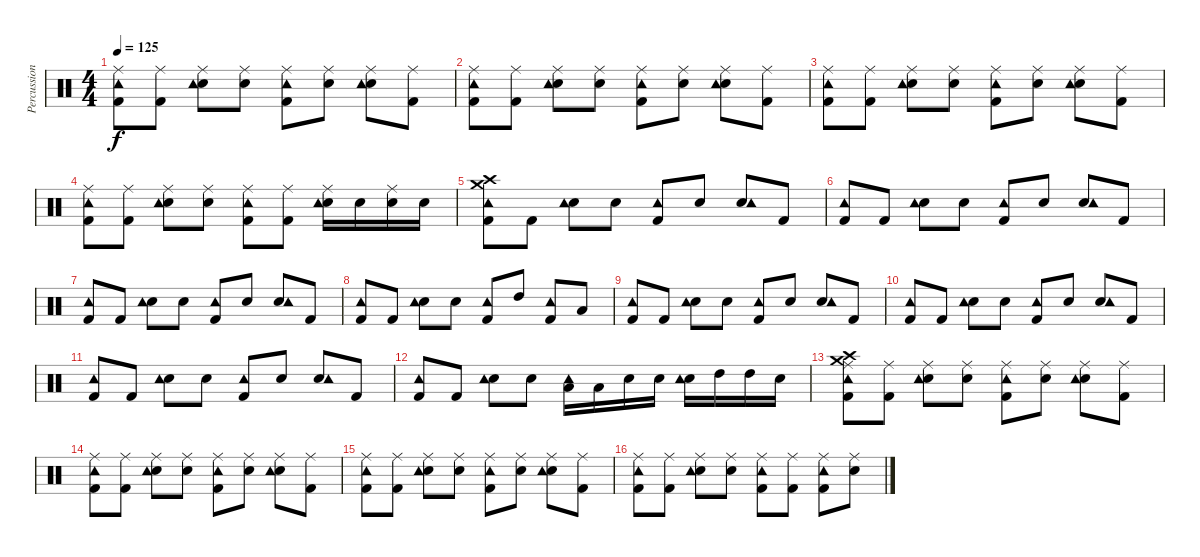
\track ("Percussioni" "Percussion") {instrument percussion}
\staff {score}
\articulation defaults
\ts (4 4)
\tempo 125
\clef neutral
\ks c
("Kick (hit) 2" "Ride (middle)" "Tambourine (hit)").8{dy f} ("Kick (hit) 2" "Ride (middle)").8 ("Snare (hit) 2" "Ride (middle)" "Tambourine (hit)").8 ("Snare (hit) 2" "Ride (middle)").8 ("Kick (hit) 2" "Ride (middle)" "Tambourine (hit)").8 ("Snare (hit) 2" "Ride (middle)").8 ("Snare (hit) 2" "Ride (middle)" "Tambourine (hit)").8 ("Kick (hit) 2" "Ride (middle)").8 |
("Kick (hit) 2" "Ride (middle)" "Tambourine (hit)").8 ("Kick (hit) 2" "Ride (middle)").8 ("Snare (hit) 2" "Ride (middle)" "Tambourine (hit)").8 ("Snare (hit) 2" "Ride (middle)").8 ("Kick (hit) 2" "Ride (middle)" "Tambourine (hit)").8 ("Snare (hit) 2" "Ride (middle)").8 ("Snare (hit) 2" "Ride (middle)" "Tambourine (hit)").8 ("Kick (hit) 2" "Ride (middle)").8 |
("Kick (hit) 2" "Ride (middle)" "Tambourine (hit)").8 ("Kick (hit) 2" "Ride (middle)").8 ("Snare (hit) 2" "Ride (middle)" "Tambourine (hit)").8 ("Snare (hit) 2" "Ride (middle)").8 ("Kick (hit) 2" "Ride (middle)" "Tambourine (hit)").8 ("Snare (hit) 2" "Ride (middle)").8 ("Snare (hit) 2" "Ride (middle)" "Tambourine (hit)").8 ("Kick (hit) 2" "Ride (middle)").8 |
("Kick (hit) 2" "Ride (middle)" "Tambourine (hit)").8 ("Kick (hit) 2" "Ride (middle)").8 ("Snare (hit) 2" "Ride (middle)" "Tambourine (hit)").8 ("Snare (hit) 2" "Ride (middle)").8 ("Kick (hit) 2" "Ride (middle)" "Tambourine (hit)").8 ("Kick (hit) 2" "Ride (middle)").8 ("Snare (hit) 2" "Ride (middle)" "Tambourine (hit)").16 "Snare (hit) 2".16 ("Snare (hit) 2" "Ride (middle)").16 "Snare (hit) 2".16 |
("Kick (hit) 2" "Crash high (hit)" "Crash medium (hit)" "Tambourine (hit)").8 "Kick (hit) 2".8 ("Snare (hit) 2" "Tambourine (hit)").8 "Snare (hit) 2".8 ("Kick (hit) 2" "Tambourine (hit)").8 "Snare (hit) 2".8 ("Snare (hit) 2" "Tambourine (hit)").8 "Kick (hit) 2".8 |
("Kick (hit) 2" "Tambourine (hit)").8 "Kick (hit) 2".8 ("Snare (hit) 2" "Tambourine (hit)").8 "Snare (hit) 2".8 ("Kick (hit) 2" "Tambourine (hit)").8 "Snare (hit) 2".8 ("Snare (hit) 2" "Tambourine (hit)").8 "Kick (hit) 2".8 |
("Kick (hit) 2" "Tambourine (hit)").8 "Kick (hit) 2".8 ("Snare (hit) 2" "Tambourine (hit)").8 "Snare (hit) 2".8 ("Kick (hit) 2" "Tambourine (hit)").8 "Snare (hit) 2".8 ("Snare (hit) 2" "Tambourine (hit)").8 "Kick (hit) 2".8 |
("Kick (hit) 2" "Tambourine (hit)").8 "Kick (hit) 2".8 ("Snare (hit) 2" "Tambourine (hit)").8 "Snare (hit) 2".8 ("Kick (hit) 2" "Tambourine (hit)").8 "High Tom (hit)".8 ("Kick (hit) 2" "Tambourine (hit)").8 "Low Floor Tom (hit)".8 |
("Kick (hit) 2" "Tambourine (hit)").8 "Kick (hit) 2".8 ("Snare (hit) 2" "Tambourine (hit)").8 "Snare (hit) 2".8 ("Kick (hit) 2" "Tambourine (hit)").8 "Snare (hit) 2".8 ("Snare (hit) 2" "Tambourine (hit)").8 "Kick (hit) 2".8 |
("Kick (hit) 2" "Tambourine (hit)").8 "Kick (hit) 2".8 ("Snare (hit) 2" "Tambourine (hit)").8 "Snare (hit) 2".8 ("Kick (hit) 2" "Tambourine (hit)").8 "Snare (hit) 2".8 ("Snare (hit) 2" "Tambourine (hit)").8 "Kick (hit) 2".8 |
("Kick (hit) 2" "Tambourine (hit)").8 "Kick (hit) 2".8 ("Snare (hit) 2" "Tambourine (hit)").8 "Snare (hit) 2".8 ("Kick (hit) 2" "Tambourine (hit)").8 "Snare (hit) 2".8 ("Snare (hit) 2" "Tambourine (hit)").8 "Kick (hit) 2".8 |
("Kick (hit) 2" "Tambourine (hit)").8 "Kick (hit) 2".8 ("Snare (hit) 2" "Tambourine (hit)").8 "Snare (hit) 2".8 ("Low Floor Tom (hit)" "Tambourine (hit)").16 "Low Floor Tom (hit)".16 "Snare (hit) 2".16 "Snare (hit) 2".16 ("Snare (hit) 2" "Tambourine (hit)").16 "High Tom (hit)".16 "High Tom (hit)".16 "Snare (hit) 2".16 |
("Kick (hit) 2" "Ride (middle)" "Crash high (hit)" "Tambourine (hit)" "Crash medium (hit)").8 ("Kick (hit) 2" "Ride (middle)").8 ("Snare (hit) 2" "Ride (middle)" "Tambourine (hit)").8 ("Snare (hit) 2" "Ride (middle)").8 ("Kick (hit) 2" "Ride (middle)" "Tambourine (hit)").8 ("Snare (hit) 2" "Ride (middle)").8 ("Snare (hit) 2" "Ride (middle)" "Tambourine (hit)").8 ("Kick (hit) 2" "Ride (middle)").8 |
("Kick (hit) 2" "Ride (middle)" "Tambourine (hit)").8 ("Kick (hit) 2" "Ride (middle)").8 ("Snare (hit) 2" "Ride (middle)" "Tambourine (hit)").8 ("Snare (hit) 2" "Ride (middle)").8 ("Kick (hit) 2" "Ride (middle)" "Tambourine (hit)").8 ("Snare (hit) 2" "Ride (middle)").8 ("Snare (hit) 2" "Ride (middle)" "Tambourine (hit)").8 ("Kick (hit) 2" "Ride (middle)").8 |
("Kick (hit) 2" "Ride (middle)" "Tambourine (hit)").8 ("Kick (hit) 2" "Ride (middle)").8 ("Snare (hit) 2" "Ride (middle)" "Tambourine (hit)").8 ("Snare (hit) 2" "Ride (middle)").8 ("Kick (hit) 2" "Ride (middle)" "Tambourine (hit)").8 ("Snare (hit) 2" "Ride (middle)").8 ("Snare (hit) 2" "Ride (middle)" "Tambourine (hit)").8 ("Kick (hit) 2" "Ride (middle)").8 |
("Kick (hit) 2" "Ride (middle)" "Tambourine (hit)").8 ("Kick (hit) 2" "Ride (middle)").8 ("Snare (hit) 2" "Ride (middle)" "Tambourine (hit)").8 ("Snare (hit) 2" "Ride (middle)").8 ("Kick (hit) 2" "Ride (middle)" "Tambourine (hit)").8 ("Kick (hit) 2" "Ride (middle)").8 ("Kick (hit) 2" "Ride (middle)" "Tambourine (hit)").8 ("Snare (hit) 2" "Ride (middle)").8
